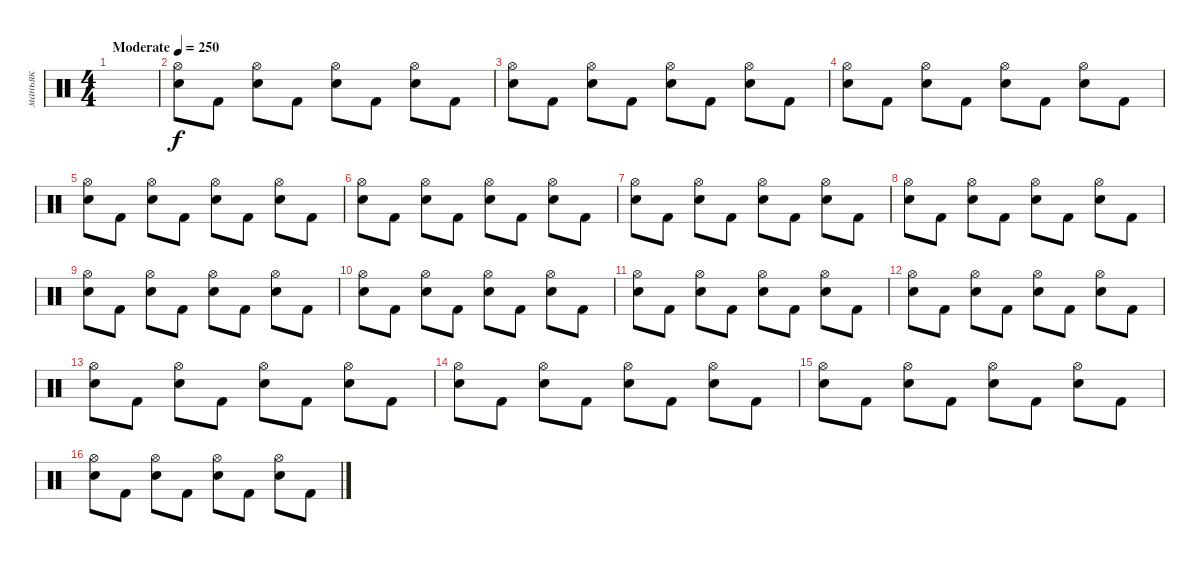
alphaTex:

\track ("маньяк" "маньяк") {instrument percussion}
\staff {score}
\articulation defaults
\ts (4 4)
\tempo (250 "Moderate")
\clef neutral
\ks c
|
("Electric Snare (hit)" "Hi-Hat (open)").8 "Kick (hit) 2".8 ("Electric Snare (hit)" "Hi-Hat (open)").8 "Kick (hit) 2".8 ("Electric Snare (hit)" "Hi-Hat (open)").8 "Kick (hit) 2".8 ("Electric Snare (hit)" "Hi-Hat (open)").8 "Kick (hit) 2".8 |
("Electric Snare (hit)" "Hi-Hat (open)").8 "Kick (hit) 2".8 ("Electric Snare (hit)" "Hi-Hat (open)").8 "Kick (hit) 2".8 ("Electric Snare (hit)" "Hi-Hat (open)").8 "Kick (hit) 2".8 ("Electric Snare (hit)" "Hi-Hat (open)").8 "Kick (hit) 2".8 |
("Electric Snare (hit)" "Hi-Hat (open)").8 "Kick (hit) 2".8 ("Electric Snare (hit)" "Hi-Hat (open)").8 "Kick (hit) 2".8 ("Electric Snare (hit)" "Hi-Hat (open)").8 "Kick (hit) 2".8 ("Electric Snare (hit)" "Hi-Hat (open)").8 "Kick (hit) 2".8 |
("Electric Snare (hit)" "Hi-Hat (open)").8 "Kick (hit) 2".8 ("Electric Snare (hit)" "Hi-Hat (open)").8 "Kick (hit) 2".8 ("Electric Snare (hit)" "Hi-Hat (open)").8 "Kick (hit) 2".8 ("Electric Snare (hit)" "Hi-Hat (open)").8 "Kick (hit) 2".8 |
("Electric Snare (hit)" "Hi-Hat (open)").8 "Kick (hit) 2".8 ("Electric Snare (hit)" "Hi-Hat (open)").8 "Kick (hit) 2".8 ("Electric Snare (hit)" "Hi-Hat (open)").8 "Kick (hit) 2".8 ("Electric Snare (hit)" "Hi-Hat (open)").8 "Kick (hit) 2".8 |
("Electric Snare (hit)" "Hi-Hat (open)").8 "Kick (hit) 2".8 ("Electric Snare (hit)" "Hi-Hat (open)").8 "Kick (hit) 2".8 ("Electric Snare (hit)" "Hi-Hat (open)").8 "Kick (hit) 2".8 ("Electric Snare (hit)" "Hi-Hat (open)").8 "Kick (hit) 2".8 |
("Electric Snare (hit)" "Hi-Hat (open)").8 "Kick (hit) 2".8 ("Electric Snare (hit)" "Hi-Hat (open)").8 "Kick (hit) 2".8 ("Electric Snare (hit)" "Hi-Hat (open)").8 "Kick (hit) 2".8 ("Electric Snare (hit)" "Hi-Hat (open)").8 "Kick (hit) 2".8 |
("Electric Snare (hit)" "Hi-Hat (open)").8 "Kick (hit) 2".8 ("Electric Snare (hit)" "Hi-Hat (open)").8 "Kick (hit) 2".8 ("Electric Snare (hit)" "Hi-Hat (open)").8 "Kick (hit) 2".8 ("Electric Snare (hit)" "Hi-Hat (open)").8 "Kick (hit) 2".8 |
("Electric Snare (hit)" "Hi-Hat (open)").8 "Kick (hit) 2".8 ("Electric Snare (hit)" "Hi-Hat (open)").8 "Kick (hit) 2".8 ("Electric Snare (hit)" "Hi-Hat (open)").8 "Kick (hit) 2".8 ("Electric Snare (hit)" "Hi-Hat (open)").8 "Kick (hit) 2".8 |
("Electric Snare (hit)" "Hi-Hat (open)").8 "Kick (hit) 2".8 ("Electric Snare (hit)" "Hi-Hat (open)").8 "Kick (hit) 2".8 ("Electric Snare (hit)" "Hi-Hat (open)").8 "Kick (hit) 2".8 ("Electric Snare (hit)" "Hi-Hat (open)").8 "Kick (hit) 2".8 |
("Electric Snare (hit)" "Hi-Hat (open)").8 "Kick (hit) 2".8 ("Electric Snare (hit)" "Hi-Hat (open)").8 "Kick (hit) 2".8 ("Electric Snare (hit)" "Hi-Hat (open)").8 "Kick (hit) 2".8 ("Electric Snare (hit)" "Hi-Hat (open)").8 "Kick (hit) 2".8 |
("Electric Snare (hit)" "Hi-Hat (open)").8 "Kick (hit) 2".8 ("Electric Snare (hit)" "Hi-Hat (open)").8 "Kick (hit) 2".8 ("Electric Snare (hit)" "Hi-Hat (open)").8 "Kick (hit) 2".8 ("Electric Snare (hit)" "Hi-Hat (open)").8 "Kick (hit) 2".8 |
("Electric Snare (hit)" "Hi-Hat (open)").8 "Kick (hit) 2".8 ("Electric Snare (hit)" "Hi-Hat (open)").8 "Kick (hit) 2".8 ("Electric Snare (hit)" "Hi-Hat (open)").8 "Kick (hit) 2".8 ("Electric Snare (hit)" "Hi-Hat (open)").8 "Kick (hit) 2".8 |
("Electric Snare (hit)" "Hi-Hat (open)").8 "Kick (hit) 2".8 ("Electric Snare (hit)" "Hi-Hat (open)").8 "Kick (hit) 2".8 ("Electric Snare (hit)" "Hi-Hat (open)").8 "Kick (hit) 2".8 ("Electric Snare (hit)" "Hi-Hat (open)").8 "Kick (hit) 2".8 |
("Electric Snare (hit)" "Hi-Hat (open)").8 "Kick (hit) 2".8 ("Electric Snare (hit)" "Hi-Hat (open)").8 "Kick (hit) 2".8 ("Electric Snare (hit)" "Hi-Hat (open)").8 "Kick (hit) 2".8 ("Electric Snare (hit)" "Hi-Hat (open)").8 "Kick (hit) 2".8
